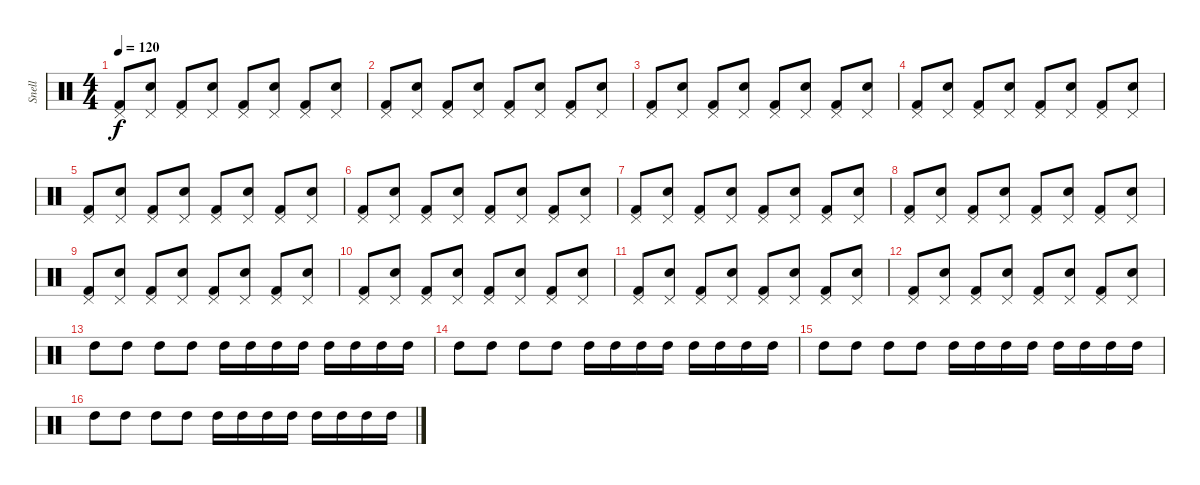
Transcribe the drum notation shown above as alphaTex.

\track ("Snell" "Snell") {instrument percussion}
\staff {score}
\articulation defaults
\ts (4 4)
\tempo 120
\clef neutral
\ks c
("Pedal Hi-Hat (hit)" "Kick (hit) 2").8{dy f} ("Pedal Hi-Hat (hit)" "Snare (hit) 2").8 ("Pedal Hi-Hat (hit)" "Kick (hit) 2").8 ("Pedal Hi-Hat (hit)" "Snare (hit) 2").8 ("Pedal Hi-Hat (hit)" "Kick (hit) 2").8 ("Pedal Hi-Hat (hit)" "Snare (hit) 2").8 ("Pedal Hi-Hat (hit)" "Kick (hit) 2").8 ("Pedal Hi-Hat (hit)" "Snare (hit) 2").8 |
("Pedal Hi-Hat (hit)" "Kick (hit) 2").8 ("Pedal Hi-Hat (hit)" "Snare (hit) 2").8 ("Pedal Hi-Hat (hit)" "Kick (hit) 2").8 ("Pedal Hi-Hat (hit)" "Snare (hit) 2").8 ("Pedal Hi-Hat (hit)" "Kick (hit) 2").8 ("Pedal Hi-Hat (hit)" "Snare (hit) 2").8 ("Pedal Hi-Hat (hit)" "Kick (hit) 2").8 ("Pedal Hi-Hat (hit)" "Snare (hit) 2").8 |
("Pedal Hi-Hat (hit)" "Kick (hit) 2").8 ("Pedal Hi-Hat (hit)" "Snare (hit) 2").8 ("Pedal Hi-Hat (hit)" "Kick (hit) 2").8 ("Pedal Hi-Hat (hit)" "Snare (hit) 2").8 ("Pedal Hi-Hat (hit)" "Kick (hit) 2").8 ("Pedal Hi-Hat (hit)" "Snare (hit) 2").8 ("Pedal Hi-Hat (hit)" "Kick (hit) 2").8 ("Pedal Hi-Hat (hit)" "Snare (hit) 2").8 |
("Pedal Hi-Hat (hit)" "Kick (hit) 2").8 ("Pedal Hi-Hat (hit)" "Snare (hit) 2").8 ("Pedal Hi-Hat (hit)" "Kick (hit) 2").8 ("Pedal Hi-Hat (hit)" "Snare (hit) 2").8 ("Pedal Hi-Hat (hit)" "Kick (hit) 2").8 ("Pedal Hi-Hat (hit)" "Snare (hit) 2").8 ("Pedal Hi-Hat (hit)" "Kick (hit) 2").8 ("Pedal Hi-Hat (hit)" "Snare (hit) 2").8 |
("Pedal Hi-Hat (hit)" "Kick (hit) 2").8 ("Pedal Hi-Hat (hit)" "Snare (hit) 2").8 ("Pedal Hi-Hat (hit)" "Kick (hit) 2").8 ("Pedal Hi-Hat (hit)" "Snare (hit) 2").8 ("Pedal Hi-Hat (hit)" "Kick (hit) 2").8 ("Pedal Hi-Hat (hit)" "Snare (hit) 2").8 ("Pedal Hi-Hat (hit)" "Kick (hit) 2").8 ("Pedal Hi-Hat (hit)" "Snare (hit) 2").8 |
("Pedal Hi-Hat (hit)" "Kick (hit) 2").8 ("Pedal Hi-Hat (hit)" "Snare (hit) 2").8 ("Pedal Hi-Hat (hit)" "Kick (hit) 2").8 ("Pedal Hi-Hat (hit)" "Snare (hit) 2").8 ("Pedal Hi-Hat (hit)" "Kick (hit) 2").8 ("Pedal Hi-Hat (hit)" "Snare (hit) 2").8 ("Pedal Hi-Hat (hit)" "Kick (hit) 2").8 ("Pedal Hi-Hat (hit)" "Snare (hit) 2").8 |
("Pedal Hi-Hat (hit)" "Kick (hit) 2").8 ("Pedal Hi-Hat (hit)" "Snare (hit) 2").8 ("Pedal Hi-Hat (hit)" "Kick (hit) 2").8 ("Pedal Hi-Hat (hit)" "Snare (hit) 2").8 ("Pedal Hi-Hat (hit)" "Kick (hit) 2").8 ("Pedal Hi-Hat (hit)" "Snare (hit) 2").8 ("Pedal Hi-Hat (hit)" "Kick (hit) 2").8 ("Pedal Hi-Hat (hit)" "Snare (hit) 2").8 |
("Pedal Hi-Hat (hit)" "Kick (hit) 2").8 ("Pedal Hi-Hat (hit)" "Snare (hit) 2").8 ("Pedal Hi-Hat (hit)" "Kick (hit) 2").8 ("Pedal Hi-Hat (hit)" "Snare (hit) 2").8 ("Pedal Hi-Hat (hit)" "Kick (hit) 2").8 ("Pedal Hi-Hat (hit)" "Snare (hit) 2").8 ("Pedal Hi-Hat (hit)" "Kick (hit) 2").8 ("Pedal Hi-Hat (hit)" "Snare (hit) 2").8 |
("Pedal Hi-Hat (hit)" "Kick (hit) 2").8 ("Pedal Hi-Hat (hit)" "Snare (hit) 2").8 ("Pedal Hi-Hat (hit)" "Kick (hit) 2").8 ("Pedal Hi-Hat (hit)" "Snare (hit) 2").8 ("Pedal Hi-Hat (hit)" "Kick (hit) 2").8 ("Pedal Hi-Hat (hit)" "Snare (hit) 2").8 ("Pedal Hi-Hat (hit)" "Kick (hit) 2").8 ("Pedal Hi-Hat (hit)" "Snare (hit) 2").8 |
("Pedal Hi-Hat (hit)" "Kick (hit) 2").8 ("Pedal Hi-Hat (hit)" "Snare (hit) 2").8 ("Pedal Hi-Hat (hit)" "Kick (hit) 2").8 ("Pedal Hi-Hat (hit)" "Snare (hit) 2").8 ("Pedal Hi-Hat (hit)" "Kick (hit) 2").8 ("Pedal Hi-Hat (hit)" "Snare (hit) 2").8 ("Pedal Hi-Hat (hit)" "Kick (hit) 2").8 ("Pedal Hi-Hat (hit)" "Snare (hit) 2").8 |
("Pedal Hi-Hat (hit)" "Kick (hit) 2").8 ("Pedal Hi-Hat (hit)" "Snare (hit) 2").8 ("Pedal Hi-Hat (hit)" "Kick (hit) 2").8 ("Pedal Hi-Hat (hit)" "Snare (hit) 2").8 ("Pedal Hi-Hat (hit)" "Kick (hit) 2").8 ("Pedal Hi-Hat (hit)" "Snare (hit) 2").8 ("Pedal Hi-Hat (hit)" "Kick (hit) 2").8 ("Pedal Hi-Hat (hit)" "Snare (hit) 2").8 |
("Pedal Hi-Hat (hit)" "Kick (hit) 2").8 ("Pedal Hi-Hat (hit)" "Snare (hit) 2").8 ("Pedal Hi-Hat (hit)" "Kick (hit) 2").8 ("Pedal Hi-Hat (hit)" "Snare (hit) 2").8 ("Pedal Hi-Hat (hit)" "Kick (hit) 2").8 ("Pedal Hi-Hat (hit)" "Snare (hit) 2").8 ("Pedal Hi-Hat (hit)" "Kick (hit) 2").8 ("Pedal Hi-Hat (hit)" "Snare (hit) 2").8 |
"High Tom (hit)".8 "High Tom (hit)".8 "High Tom (hit)".8 "High Tom (hit)".8 "High Tom (hit)".16 "High Tom (hit)".16 "High Tom (hit)".16 "High Tom (hit)".16 "High Tom (hit)".16 "High Tom (hit)".16 "High Tom (hit)".16 "High Tom (hit)".16 |
"High Tom (hit)".8 "High Tom (hit)".8 "High Tom (hit)".8 "High Tom (hit)".8 "High Tom (hit)".16 "High Tom (hit)".16 "High Tom (hit)".16 "High Tom (hit)".16 "High Tom (hit)".16 "High Tom (hit)".16 "High Tom (hit)".16 "High Tom (hit)".16 |
"High Tom (hit)".8 "High Tom (hit)".8 "High Tom (hit)".8 "High Tom (hit)".8 "High Tom (hit)".16 "High Tom (hit)".16 "High Tom (hit)".16 "High Tom (hit)".16 "High Tom (hit)".16 "High Tom (hit)".16 "High Tom (hit)".16 "High Tom (hit)".16 |
"High Tom (hit)".8 "High Tom (hit)".8 "High Tom (hit)".8 "High Tom (hit)".8 "High Tom (hit)".16 "High Tom (hit)".16 "High Tom (hit)".16 "High Tom (hit)".16 "High Tom (hit)".16 "High Tom (hit)".16 "High Tom (hit)".16 "High Tom (hit)".16
